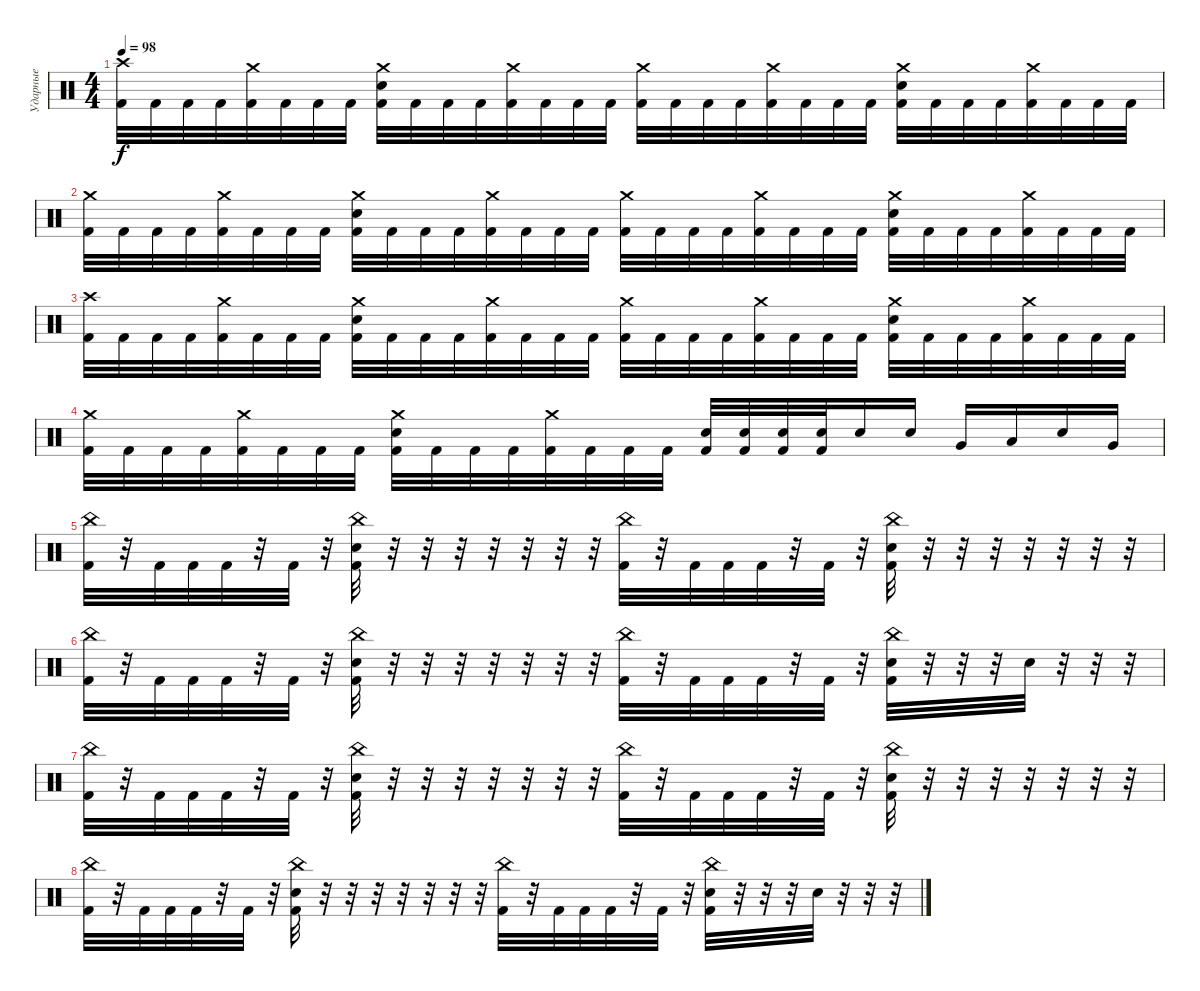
\track ("Ударные" "Ударные") {instrument percussion}
\staff {score}
\articulation defaults
\ts (4 4)
\tempo 98
\clef neutral
\ks c
("Crash high (hit)" "Kick (hit) 2").32{dy f} "Kick (hit) 2".32 "Kick (hit) 2".32 "Kick (hit) 2".32 ("Crash medium (hit)" "Kick (hit) 2").32 "Kick (hit) 2".32 "Kick (hit) 2".32 "Kick (hit) 2".32 ("Crash medium (hit)" "Electric Snare (hit)" "Kick (hit) 2").32 "Kick (hit) 2".32 "Kick (hit) 2".32 "Kick (hit) 2".32 ("Crash medium (hit)" "Kick (hit) 2").32 "Kick (hit) 2".32 "Kick (hit) 2".32 "Kick (hit) 2".32 ("Crash medium (hit)" "Kick (hit) 2").32 "Kick (hit) 2".32 "Kick (hit) 2".32 "Kick (hit) 2".32 ("Crash medium (hit)" "Kick (hit) 2").32 "Kick (hit) 2".32 "Kick (hit) 2".32 "Kick (hit) 2".32 ("Crash medium (hit)" "Electric Snare (hit)" "Kick (hit) 2").32 "Kick (hit) 2".32 "Kick (hit) 2".32 "Kick (hit) 2".32 ("Crash medium (hit)" "Kick (hit) 2").32 "Kick (hit) 2".32 "Kick (hit) 2".32 "Kick (hit) 2".32 |
("Crash medium (hit)" "Kick (hit) 2").32 "Kick (hit) 2".32 "Kick (hit) 2".32 "Kick (hit) 2".32 ("Crash medium (hit)" "Kick (hit) 2").32 "Kick (hit) 2".32 "Kick (hit) 2".32 "Kick (hit) 2".32 ("Crash medium (hit)" "Electric Snare (hit)" "Kick (hit) 2").32 "Kick (hit) 2".32 "Kick (hit) 2".32 "Kick (hit) 2".32 ("Crash medium (hit)" "Kick (hit) 2").32 "Kick (hit) 2".32 "Kick (hit) 2".32 "Kick (hit) 2".32 ("Crash medium (hit)" "Kick (hit) 2").32 "Kick (hit) 2".32 "Kick (hit) 2".32 "Kick (hit) 2".32 ("Crash medium (hit)" "Kick (hit) 2").32 "Kick (hit) 2".32 "Kick (hit) 2".32 "Kick (hit) 2".32 ("Crash medium (hit)" "Electric Snare (hit)" "Kick (hit) 2").32 "Kick (hit) 2".32 "Kick (hit) 2".32 "Kick (hit) 2".32 ("Crash medium (hit)" "Kick (hit) 2").32 "Kick (hit) 2".32 "Kick (hit) 2".32 "Kick (hit) 2".32 |
("Crash high (hit)" "Kick (hit) 2").32 "Kick (hit) 2".32 "Kick (hit) 2".32 "Kick (hit) 2".32 ("Crash medium (hit)" "Kick (hit) 2").32 "Kick (hit) 2".32 "Kick (hit) 2".32 "Kick (hit) 2".32 ("Crash medium (hit)" "Electric Snare (hit)" "Kick (hit) 2").32 "Kick (hit) 2".32 "Kick (hit) 2".32 "Kick (hit) 2".32 ("Crash medium (hit)" "Kick (hit) 2").32 "Kick (hit) 2".32 "Kick (hit) 2".32 "Kick (hit) 2".32 ("Crash medium (hit)" "Kick (hit) 2").32 "Kick (hit) 2".32 "Kick (hit) 2".32 "Kick (hit) 2".32 ("Crash medium (hit)" "Kick (hit) 2").32 "Kick (hit) 2".32 "Kick (hit) 2".32 "Kick (hit) 2".32 ("Crash medium (hit)" "Electric Snare (hit)" "Kick (hit) 2").32 "Kick (hit) 2".32 "Kick (hit) 2".32 "Kick (hit) 2".32 ("Crash medium (hit)" "Kick (hit) 2").32 "Kick (hit) 2".32 "Kick (hit) 2".32 "Kick (hit) 2".32 |
("Crash medium (hit)" "Kick (hit) 2").32 "Kick (hit) 2".32 "Kick (hit) 2".32 "Kick (hit) 2".32 ("Crash medium (hit)" "Kick (hit) 2").32 "Kick (hit) 2".32 "Kick (hit) 2".32 "Kick (hit) 2".32 ("Crash medium (hit)" "Electric Snare (hit)" "Kick (hit) 2").32 "Kick (hit) 2".32 "Kick (hit) 2".32 "Kick (hit) 2".32 ("Crash medium (hit)" "Kick (hit) 2").32 "Kick (hit) 2".32 "Kick (hit) 2".32 "Kick (hit) 2".32 ("Electric Snare (hit)" "Kick (hit) 2").32 ("Electric Snare (hit)" "Kick (hit) 2").32 ("Electric Snare (hit)" "Kick (hit) 2").32 ("Electric Snare (hit)" "Kick (hit) 2").32 "Electric Snare (hit)".16 "Electric Snare (hit)".16 "Very Low Tom (hit)".16 "Low Tom (hit)".16 "Electric Snare (hit)".16 "Very Low Tom (hit)".16 |
("China (hit)" "Kick (hit) 2").32 r.32 "Kick (hit) 2".32 "Kick (hit) 2".32 "Kick (hit) 2".32 r.32 "Kick (hit) 2".32 r.32 ("China (hit)" "Electric Snare (hit)" "Kick (hit) 2").32 r.32 r.32 r.32 r.32 r.32 r.32 r.32 ("China (hit)" "Kick (hit) 2").32 r.32 "Kick (hit) 2".32 "Kick (hit) 2".32 "Kick (hit) 2".32 r.32 "Kick (hit) 2".32 r.32 ("China (hit)" "Electric Snare (hit)" "Kick (hit) 2").32 r.32 r.32 r.32 r.32 r.32 r.32 r.32 |
("China (hit)" "Kick (hit) 2").32 r.32 "Kick (hit) 2".32 "Kick (hit) 2".32 "Kick (hit) 2".32 r.32 "Kick (hit) 2".32 r.32 ("China (hit)" "Electric Snare (hit)" "Kick (hit) 2").32 r.32 r.32 r.32 r.32 r.32 r.32 r.32 ("China (hit)" "Kick (hit) 2").32 r.32 "Kick (hit) 2".32 "Kick (hit) 2".32 "Kick (hit) 2".32 r.32 "Kick (hit) 2".32 r.32 ("China (hit)" "Electric Snare (hit)" "Kick (hit) 2").32 r.32 r.32 r.32 "Electric Snare (hit)".32 r.32 r.32 r.32 |
("China (hit)" "Kick (hit) 2").32 r.32 "Kick (hit) 2".32 "Kick (hit) 2".32 "Kick (hit) 2".32 r.32 "Kick (hit) 2".32 r.32 ("China (hit)" "Electric Snare (hit)" "Kick (hit) 2").32 r.32 r.32 r.32 r.32 r.32 r.32 r.32 ("China (hit)" "Kick (hit) 2").32 r.32 "Kick (hit) 2".32 "Kick (hit) 2".32 "Kick (hit) 2".32 r.32 "Kick (hit) 2".32 r.32 ("China (hit)" "Electric Snare (hit)" "Kick (hit) 2").32 r.32 r.32 r.32 r.32 r.32 r.32 r.32 |
("China (hit)" "Kick (hit) 2").32 r.32 "Kick (hit) 2".32 "Kick (hit) 2".32 "Kick (hit) 2".32 r.32 "Kick (hit) 2".32 r.32 ("China (hit)" "Electric Snare (hit)" "Kick (hit) 2").32 r.32 r.32 r.32 r.32 r.32 r.32 r.32 ("China (hit)" "Kick (hit) 2").32 r.32 "Kick (hit) 2".32 "Kick (hit) 2".32 "Kick (hit) 2".32 r.32 "Kick (hit) 2".32 r.32 ("China (hit)" "Electric Snare (hit)" "Kick (hit) 2").32 r.32 r.32 r.32 "Electric Snare (hit)".32 r.32 r.32 r.32
